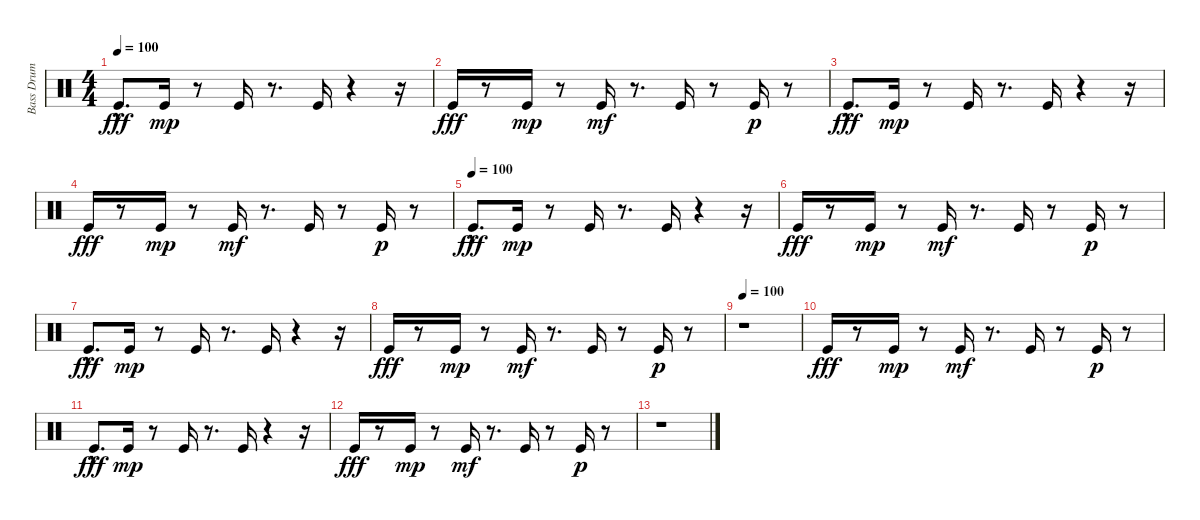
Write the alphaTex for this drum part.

\track ("Bass Drum" "Bass Drum") {instrument percussion}
\staff {score}
\articulation defaults
\ts (4 4)
\tempo 100
\clef neutral
\ks c "Kick (hit)"{hac}.8{d dy fff} "Kick (hit)".16{dy mp}
r.8 "Kick (hit)".16 r.8{d} "Kick (hit)".16 r.4 r.16 |
"Kick (hit)".16{dy fff} r.8 "Kick (hit)".16{dy mp} r.8 "Kick (hit)".16{dy mf} r.8{d} "Kick (hit)".16 r.8 "Kick (hit)".16{dy p} r.8 |
"Kick (hit)"{hac}.8{d dy fff} "Kick (hit)".16{dy mp} r.8 "Kick (hit)".16 r.8{d} "Kick (hit)".16 r.4 r.16 |
"Kick (hit)".16{dy fff} r.8 "Kick (hit)".16{dy mp} r.8 "Kick (hit)".16{dy mf} r.8{d} "Kick (hit)".16 r.8 "Kick (hit)".16{dy p} r.8 |
\tempo (100)
"Kick (hit)"{hac}.8{d dy fff} "Kick (hit)".16{dy mp} r.8 "Kick (hit)".16 r.8{d} "Kick (hit)".16 r.4 r.16 |
"Kick (hit)".16{dy fff} r.8 "Kick (hit)".16{dy mp} r.8 "Kick (hit)".16{dy mf} r.8{d} "Kick (hit)".16 r.8 "Kick (hit)".16{dy p} r.8 |
"Kick (hit)"{hac}.8{d dy fff} "Kick (hit)".16{dy mp} r.8 "Kick (hit)".16 r.8{d} "Kick (hit)".16 r.4 r.16 |
"Kick (hit)".16{dy fff} r.8 "Kick (hit)".16{dy mp} r.8 "Kick (hit)".16{dy mf} r.8{d} "Kick (hit)".16 r.8 "Kick (hit)".16{dy p} r.8 |
\tempo 100
r.1 |
"Kick (hit)".16{dy fff volume 12} r.8 "Kick (hit)".16{dy mp volume 11} r.8 "Kick (hit)".16{dy mf volume 11} r.8{d} "Kick (hit)".16{volume 10} r.8 "Kick (hit)".16{dy p volume 10} r.8 |
"Kick (hit)"{hac}.8{d dy fff volume 10} "Kick (hit)".16{dy mp volume 9} r.8 "Kick (hit)".16{volume 9} r.8{d} "Kick (hit)".16{volume 8} r.4 r.16 |
"Kick (hit)".16{dy fff volume 7} r.8 "Kick (hit)".16{dy mp volume 7} r.8 "Kick (hit)".16{dy mf volume 6} r.8{d} "Kick (hit)".16{volume 6} r.8 "Kick (hit)".16{dy p volume 6} r.8 |
r.1
